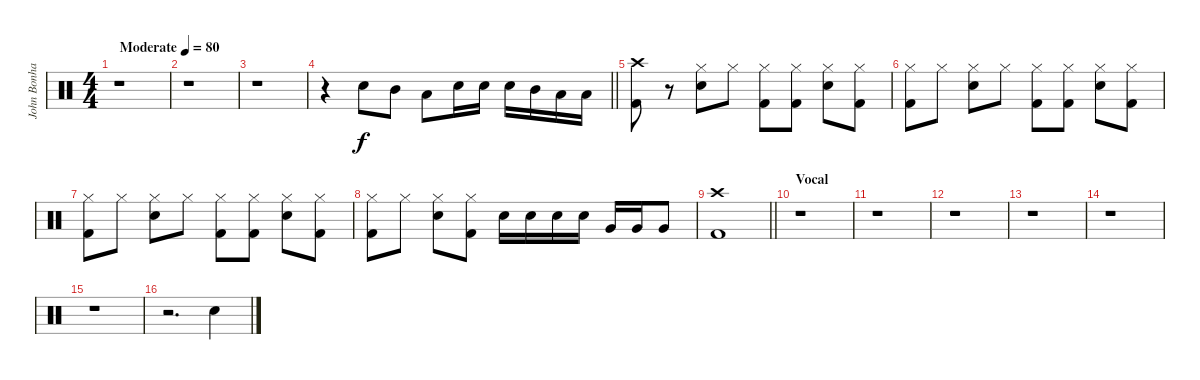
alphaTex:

\track ("John Bonham (Bateria)" "John Bonha") {instrument percussion}
\staff {score}
\articulation defaults
\ts (4 4)
\tempo (80 "Moderate")
\clef neutral
\ks c
r.1{dy f} |
r.1 |
r.1 |
\barLineRight lightlight
r.4 "Snare (hit) 2".8 "Mid Tom (hit)".8 "Low Floor Tom (hit)".8 "Snare (hit) 2".16 "Snare (hit) 2".16 "Snare (hit) 2".16 "Mid Tom (hit)".16 "Low Floor Tom (hit)".16 "Low Floor Tom (hit)".16 |
("Crash high (hit)" "Kick (hit) 2").8 r.8 ("Snare (hit) 2" "Hi-Hat (closed)").8 "Hi-Hat (closed)".8 ("Hi-Hat (closed)" "Kick (hit) 2").8 ("Kick (hit) 2" "Hi-Hat (closed)").8 ("Snare (hit) 2" "Hi-Hat (closed)").8 ("Kick (hit) 2" "Hi-Hat (closed)").8 |
("Kick (hit) 2" "Hi-Hat (closed)").8 "Hi-Hat (closed)".8 ("Snare (hit) 2" "Hi-Hat (closed)").8 "Hi-Hat (closed)".8 ("Kick (hit) 2" "Hi-Hat (closed)").8 ("Hi-Hat (closed)" "Kick (hit) 2").8 ("Snare (hit) 2" "Hi-Hat (closed)").8 ("Kick (hit) 2" "Hi-Hat (closed)").8 |
("Kick (hit) 2" "Hi-Hat (closed)").8 "Hi-Hat (closed)".8 ("Snare (hit) 2" "Hi-Hat (closed)").8 "Hi-Hat (closed)".8 ("Kick (hit) 2" "Hi-Hat (closed)").8 ("Kick (hit) 2" "Hi-Hat (closed)").8 ("Hi-Hat (closed)" "Snare (hit) 2").8 ("Hi-Hat (closed)" "Kick (hit) 2").8 |
("Kick (hit) 2" "Hi-Hat (closed)").8 "Hi-Hat (closed)".8 ("Hi-Hat (closed)" "Snare (hit) 2").8 ("Kick (hit) 2" "Hi-Hat (closed)").8 "Snare (hit) 2".16 "Snare (hit) 2".16 "Snare (hit) 2".16 "Snare (hit) 2".16 "Very Low Tom (hit)".16 "Very Low Tom (hit)".16 "Very Low Tom (hit)".8 |
\barLineRight lightlight
("Crash high (hit)" "Kick (hit) 2").1 |
\section ("" "Vocal")
r.1 |
r.1 |
r.1 |
r.1 |
r.1 |
r.1 |
r.2{d} "Snare (hit) 2".4
